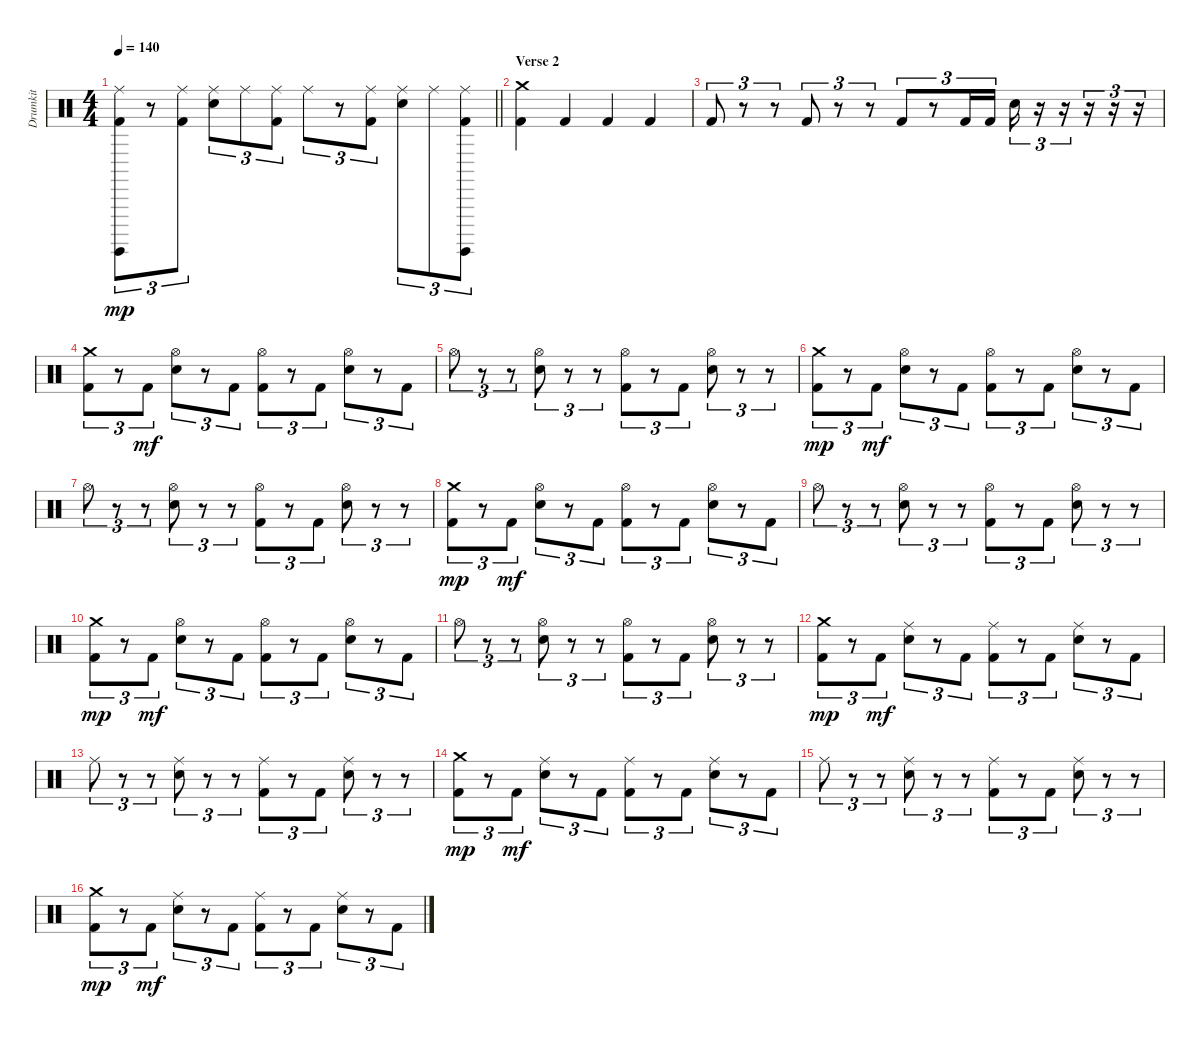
\track ("Drumkit" "Drumkit") {instrument percussion}
\staff {score}
\articulation defaults
\ts (4 4)
\tempo 140
\clef neutral
\barLineRight lightlight
\ks c
("Kick (hit) 2" "Surdo (hit)" "Ride (middle)").8{tu (3 2) dy mp} r.8{tu (3 2)} ("Kick (hit) 2" "Ride (middle)").8{tu (3 2)} ("Snare (hit) 2" "Ride (middle)").8{tu (3 2)} "Ride (middle)".8{tu (3 2)} ("Kick (hit) 2" "Ride (middle)").8{tu (3 2)} "Ride (middle)".8{tu (3 2)} r.8{tu (3 2)} ("Kick (hit) 2" "Ride (middle)").8{tu (3 2)} ("Snare (hit) 2" "Ride (middle)").8{tu (3 2)} "Ride (middle)".8{tu (3 2)} ("Kick (hit) 2" "Surdo (hit)" "Ride (middle)").8{tu (3 2)} |
\section ("" "Verse 2")
("Kick (hit) 2" "Crash medium (hit)").4 "Kick (hit) 2".4 "Kick (hit) 2".4 "Kick (hit) 2".4 |
"Kick (hit) 2".8{tu (3 2)} r.8{tu (3 2)} r.8{tu (3 2)} "Kick (hit) 2".8{tu (3 2)} r.8{tu (3 2)} r.8{tu (3 2)} "Kick (hit) 2".8{tu (3 2)} r.8{tu (3 2)} "Kick (hit) 2".16{tu (3 2)} "Kick (hit) 2".16{tu (3 2)} "Snare (hit) 2".16{tu (3 2)} r.16{tu (3 2)} r.16{tu (3 2)} r.16{tu (3 2)} r.16{tu (3 2)} r.16{tu (3 2)} |
("Kick (hit) 2" "Crash medium (hit)").8{tu (3 2)} r.8{tu (3 2)} "Kick (hit) 2".8{tu (3 2) dy mf} ("Snare (hit) 2" "Hi-Hat (open)").8{tu (3 2)} r.8{tu (3 2)} "Kick (hit) 2".8{tu (3 2)} ("Hi-Hat (open)" "Kick (hit) 2").8{tu (3 2)} r.8{tu (3 2)} "Kick (hit) 2".8{tu (3 2)} ("Snare (hit) 2" "Hi-Hat (open)").8{tu (3 2)} r.8{tu (3 2)} "Kick (hit) 2".8{tu (3 2)} |
"Hi-Hat (open)".8{tu (3 2)} r.8{tu (3 2)} r.8{tu (3 2)} ("Snare (hit) 2" "Hi-Hat (open)").8{tu (3 2)} r.8{tu (3 2)} r.8{tu (3 2)} ("Kick (hit) 2" "Hi-Hat (open)").8{tu (3 2)} r.8{tu (3 2)} "Kick (hit) 2".8{tu (3 2)} ("Snare (hit) 2" "Hi-Hat (open)").8{tu (3 2)} r.8{tu (3 2)} r.8{tu (3 2)} |
("Kick (hit) 2" "Crash medium (hit)").8{tu (3 2) dy mp} r.8{tu (3 2)} "Kick (hit) 2".8{tu (3 2) dy mf} ("Snare (hit) 2" "Hi-Hat (open)").8{tu (3 2)} r.8{tu (3 2)} "Kick (hit) 2".8{tu (3 2)} ("Hi-Hat (open)" "Kick (hit) 2").8{tu (3 2)} r.8{tu (3 2)} "Kick (hit) 2".8{tu (3 2)} ("Snare (hit) 2" "Hi-Hat (open)").8{tu (3 2)} r.8{tu (3 2)} "Kick (hit) 2".8{tu (3 2)} |
"Hi-Hat (open)".8{tu (3 2)} r.8{tu (3 2)} r.8{tu (3 2)} ("Snare (hit) 2" "Hi-Hat (open)").8{tu (3 2)} r.8{tu (3 2)} r.8{tu (3 2)} ("Kick (hit) 2" "Hi-Hat (open)").8{tu (3 2)} r.8{tu (3 2)} "Kick (hit) 2".8{tu (3 2)} ("Snare (hit) 2" "Hi-Hat (open)").8{tu (3 2)} r.8{tu (3 2)} r.8{tu (3 2)} |
("Kick (hit) 2" "Crash medium (hit)").8{tu (3 2) dy mp} r.8{tu (3 2)} "Kick (hit) 2".8{tu (3 2) dy mf} ("Snare (hit) 2" "Hi-Hat (open)").8{tu (3 2)} r.8{tu (3 2)} "Kick (hit) 2".8{tu (3 2)} ("Hi-Hat (open)" "Kick (hit) 2").8{tu (3 2)} r.8{tu (3 2)} "Kick (hit) 2".8{tu (3 2)} ("Snare (hit) 2" "Hi-Hat (open)").8{tu (3 2)} r.8{tu (3 2)} "Kick (hit) 2".8{tu (3 2)} |
"Hi-Hat (open)".8{tu (3 2)} r.8{tu (3 2)} r.8{tu (3 2)} ("Snare (hit) 2" "Hi-Hat (open)").8{tu (3 2)} r.8{tu (3 2)} r.8{tu (3 2)} ("Kick (hit) 2" "Hi-Hat (open)").8{tu (3 2)} r.8{tu (3 2)} "Kick (hit) 2".8{tu (3 2)} ("Snare (hit) 2" "Hi-Hat (open)").8{tu (3 2)} r.8{tu (3 2)} r.8{tu (3 2)} |
("Kick (hit) 2" "Crash medium (hit)").8{tu (3 2) dy mp} r.8{tu (3 2)} "Kick (hit) 2".8{tu (3 2) dy mf} ("Snare (hit) 2" "Hi-Hat (open)").8{tu (3 2)} r.8{tu (3 2)} "Kick (hit) 2".8{tu (3 2)} ("Hi-Hat (open)" "Kick (hit) 2").8{tu (3 2)} r.8{tu (3 2)} "Kick (hit) 2".8{tu (3 2)} ("Snare (hit) 2" "Hi-Hat (open)").8{tu (3 2)} r.8{tu (3 2)} "Kick (hit) 2".8{tu (3 2)} |
"Hi-Hat (open)".8{tu (3 2)} r.8{tu (3 2)} r.8{tu (3 2)} ("Snare (hit) 2" "Hi-Hat (open)").8{tu (3 2)} r.8{tu (3 2)} r.8{tu (3 2)} ("Kick (hit) 2" "Hi-Hat (open)").8{tu (3 2)} r.8{tu (3 2)} "Kick (hit) 2".8{tu (3 2)} ("Snare (hit) 2" "Hi-Hat (open)").8{tu (3 2)} r.8{tu (3 2)} r.8{tu (3 2)} |
("Kick (hit) 2" "Crash medium (hit)").8{tu (3 2) dy mp} r.8{tu (3 2)} "Kick (hit) 2".8{tu (3 2) dy mf} ("Snare (hit) 2" "Ride (middle)").8{tu (3 2)} r.8{tu (3 2)} "Kick (hit) 2".8{tu (3 2)} ("Ride (middle)" "Kick (hit) 2").8{tu (3 2)} r.8{tu (3 2)} "Kick (hit) 2".8{tu (3 2)} ("Snare (hit) 2" "Ride (middle)").8{tu (3 2)} r.8{tu (3 2)} "Kick (hit) 2".8{tu (3 2)} |
"Ride (middle)".8{tu (3 2)} r.8{tu (3 2)} r.8{tu (3 2)} ("Snare (hit) 2" "Ride (middle)").8{tu (3 2)} r.8{tu (3 2)} r.8{tu (3 2)} ("Kick (hit) 2" "Ride (middle)").8{tu (3 2)} r.8{tu (3 2)} "Kick (hit) 2".8{tu (3 2)} ("Snare (hit) 2" "Ride (middle)").8{tu (3 2)} r.8{tu (3 2)} r.8{tu (3 2)} |
("Kick (hit) 2" "Crash medium (hit)").8{tu (3 2) dy mp} r.8{tu (3 2)} "Kick (hit) 2".8{tu (3 2) dy mf} ("Snare (hit) 2" "Ride (middle)").8{tu (3 2)} r.8{tu (3 2)} "Kick (hit) 2".8{tu (3 2)} ("Ride (middle)" "Kick (hit) 2").8{tu (3 2)} r.8{tu (3 2)} "Kick (hit) 2".8{tu (3 2)} ("Snare (hit) 2" "Ride (middle)").8{tu (3 2)} r.8{tu (3 2)} "Kick (hit) 2".8{tu (3 2)} |
"Ride (middle)".8{tu (3 2)} r.8{tu (3 2)} r.8{tu (3 2)} ("Snare (hit) 2" "Ride (middle)").8{tu (3 2)} r.8{tu (3 2)} r.8{tu (3 2)} ("Kick (hit) 2" "Ride (middle)").8{tu (3 2)} r.8{tu (3 2)} "Kick (hit) 2".8{tu (3 2)} ("Snare (hit) 2" "Ride (middle)").8{tu (3 2)} r.8{tu (3 2)} r.8{tu (3 2)} |
("Kick (hit) 2" "Crash medium (hit)").8{tu (3 2) dy mp} r.8{tu (3 2)} "Kick (hit) 2".8{tu (3 2) dy mf} ("Snare (hit) 2" "Ride (middle)").8{tu (3 2)} r.8{tu (3 2)} "Kick (hit) 2".8{tu (3 2)} ("Ride (middle)" "Kick (hit) 2").8{tu (3 2)} r.8{tu (3 2)} "Kick (hit) 2".8{tu (3 2)} ("Snare (hit) 2" "Ride (middle)").8{tu (3 2)} r.8{tu (3 2)} "Kick (hit) 2".8{tu (3 2)}
